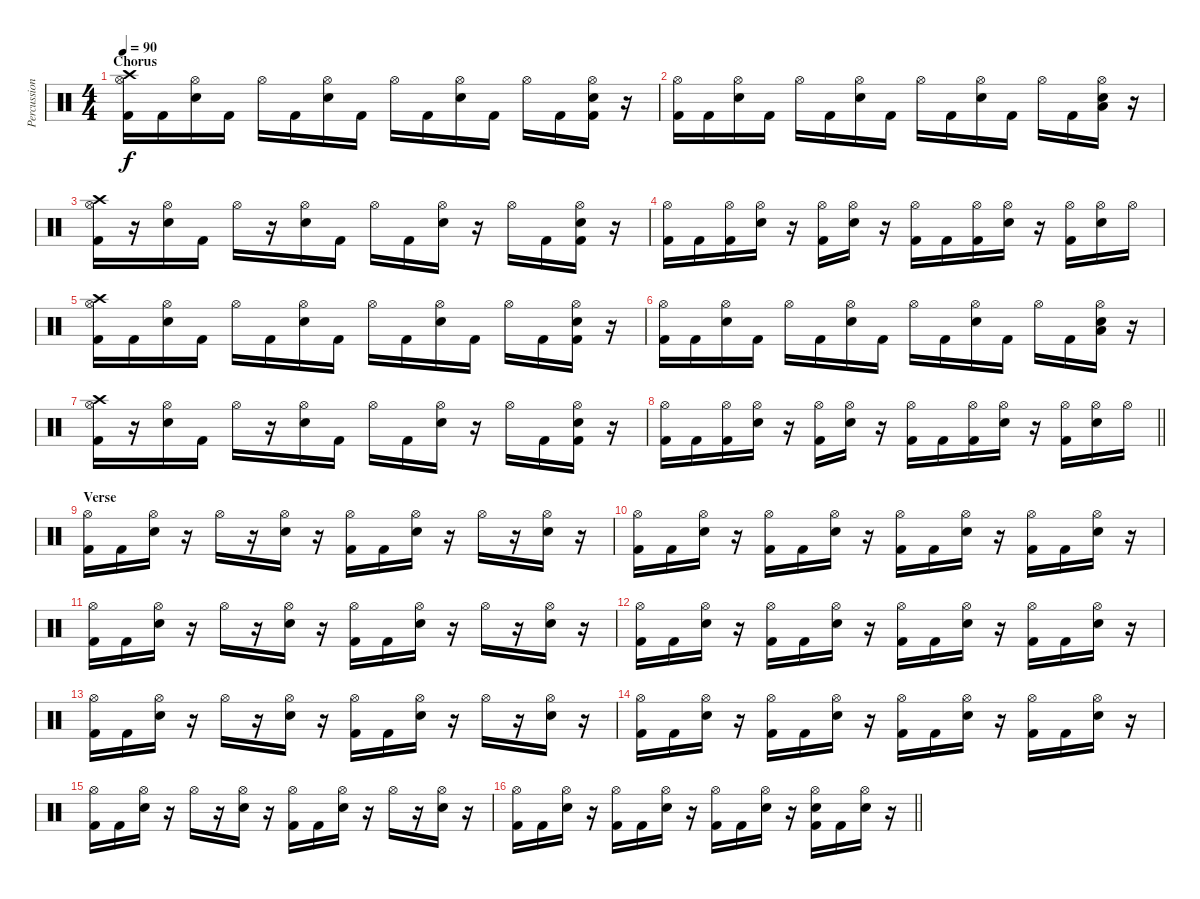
\track ("Percussion" "Percussion") {instrument percussion}
\staff {score}
\articulation defaults
\ts (4 4)
\section ("" "Chorus")
\tempo 90
\clef neutral
\ks c
("Crash high (hit)" "Hi-Hat (open)" "Kick (hit) 2").16{dy f} "Kick (hit) 2".16 ("Hi-Hat (open)" "Electric Snare (hit)").16 "Kick (hit) 2".16 "Hi-Hat (open)".16 "Kick (hit) 2".16 ("Hi-Hat (open)" "Electric Snare (hit)").16 "Kick (hit) 2".16 "Hi-Hat (open)".16 "Kick (hit) 2".16 ("Hi-Hat (open)" "Electric Snare (hit)").16 "Kick (hit) 2".16 "Hi-Hat (open)".16 "Kick (hit) 2".16 ("Hi-Hat (open)" "Electric Snare (hit)" "Kick (hit) 2").16 r.16 |
("Hi-Hat (open)" "Kick (hit) 2").16 "Kick (hit) 2".16 ("Hi-Hat (open)" "Electric Snare (hit)").16 "Kick (hit) 2".16 "Hi-Hat (open)".16 "Kick (hit) 2".16 ("Hi-Hat (open)" "Electric Snare (hit)").16 "Kick (hit) 2".16 "Hi-Hat (open)".16 "Kick (hit) 2".16 ("Hi-Hat (open)" "Electric Snare (hit)").16 "Kick (hit) 2".16 "Hi-Hat (open)".16 "Kick (hit) 2".16 ("Hi-Hat (open)" "Electric Snare (hit)" "Low Floor Tom (hit)").16 r.16 |
("Crash high (hit)" "Hi-Hat (open)" "Kick (hit) 2").16 r.16 ("Hi-Hat (open)" "Electric Snare (hit)").16 "Kick (hit) 2".16 "Hi-Hat (open)".16 r.16 ("Hi-Hat (open)" "Electric Snare (hit)").16 "Kick (hit) 2".16 "Hi-Hat (open)".16 "Kick (hit) 2".16 ("Hi-Hat (open)" "Electric Snare (hit)").16 r.16 "Hi-Hat (open)".16 "Kick (hit) 2".16 ("Hi-Hat (open)" "Electric Snare (hit)" "Kick (hit) 2").16 r.16 |
("Hi-Hat (open)" "Kick (hit) 2").16 "Kick (hit) 2".16 ("Hi-Hat (open)" "Kick (hit) 2").16 ("Hi-Hat (open)" "Electric Snare (hit)").16 r.16 ("Hi-Hat (open)" "Kick (hit) 2").16 ("Hi-Hat (open)" "Electric Snare (hit)").16 r.16 ("Hi-Hat (open)" "Kick (hit) 2").16 "Kick (hit) 2".16 ("Hi-Hat (open)" "Kick (hit) 2").16 ("Hi-Hat (open)" "Electric Snare (hit)").16 r.16 ("Hi-Hat (open)" "Kick (hit) 2").16 ("Hi-Hat (open)" "Electric Snare (hit)").16 "Hi-Hat (open)".16 |
("Crash high (hit)" "Hi-Hat (open)" "Kick (hit) 2").16 "Kick (hit) 2".16 ("Hi-Hat (open)" "Electric Snare (hit)").16 "Kick (hit) 2".16 "Hi-Hat (open)".16 "Kick (hit) 2".16 ("Hi-Hat (open)" "Electric Snare (hit)").16 "Kick (hit) 2".16 "Hi-Hat (open)".16 "Kick (hit) 2".16 ("Hi-Hat (open)" "Electric Snare (hit)").16 "Kick (hit) 2".16 "Hi-Hat (open)".16 "Kick (hit) 2".16 ("Hi-Hat (open)" "Electric Snare (hit)" "Kick (hit) 2").16 r.16 |
("Hi-Hat (open)" "Kick (hit) 2").16 "Kick (hit) 2".16 ("Hi-Hat (open)" "Electric Snare (hit)").16 "Kick (hit) 2".16 "Hi-Hat (open)".16 "Kick (hit) 2".16 ("Hi-Hat (open)" "Electric Snare (hit)").16 "Kick (hit) 2".16 "Hi-Hat (open)".16 "Kick (hit) 2".16 ("Hi-Hat (open)" "Electric Snare (hit)").16 "Kick (hit) 2".16 "Hi-Hat (open)".16 "Kick (hit) 2".16 ("Hi-Hat (open)" "Electric Snare (hit)" "Low Floor Tom (hit)").16 r.16 |
("Crash high (hit)" "Hi-Hat (open)" "Kick (hit) 2").16 r.16 ("Hi-Hat (open)" "Electric Snare (hit)").16 "Kick (hit) 2".16 "Hi-Hat (open)".16 r.16 ("Hi-Hat (open)" "Electric Snare (hit)").16 "Kick (hit) 2".16 "Hi-Hat (open)".16 "Kick (hit) 2".16 ("Hi-Hat (open)" "Electric Snare (hit)").16 r.16 "Hi-Hat (open)".16 "Kick (hit) 2".16 ("Hi-Hat (open)" "Electric Snare (hit)" "Kick (hit) 2").16 r.16 |
\barLineRight lightlight
("Hi-Hat (open)" "Kick (hit) 2").16 "Kick (hit) 2".16 ("Hi-Hat (open)" "Kick (hit) 2").16 ("Hi-Hat (open)" "Electric Snare (hit)").16 r.16 ("Hi-Hat (open)" "Kick (hit) 2").16 ("Hi-Hat (open)" "Electric Snare (hit)").16 r.16 ("Hi-Hat (open)" "Kick (hit) 2").16 "Kick (hit) 2".16 ("Hi-Hat (open)" "Kick (hit) 2").16 ("Hi-Hat (open)" "Electric Snare (hit)").16 r.16 ("Hi-Hat (open)" "Kick (hit) 2").16 ("Hi-Hat (open)" "Electric Snare (hit)").16 "Hi-Hat (open)".16 |
\section ("" "Verse")
("Hi-Hat (open)" "Kick (hit) 2").16 "Kick (hit) 2".16 ("Hi-Hat (open)" "Electric Snare (hit)").16 r.16 "Hi-Hat (open)".16 r.16 ("Hi-Hat (open)" "Electric Snare (hit)").16 r.16 ("Hi-Hat (open)" "Kick (hit) 2").16 "Kick (hit) 2".16 ("Hi-Hat (open)" "Electric Snare (hit)").16 r.16 "Hi-Hat (open)".16 r.16 ("Hi-Hat (open)" "Electric Snare (hit)").16 r.16 |
("Hi-Hat (open)" "Kick (hit) 2").16 "Kick (hit) 2".16 ("Hi-Hat (open)" "Electric Snare (hit)").16 r.16 ("Hi-Hat (open)" "Kick (hit) 2").16 "Kick (hit) 2".16 ("Hi-Hat (open)" "Electric Snare (hit)").16 r.16 ("Hi-Hat (open)" "Kick (hit) 2").16 "Kick (hit) 2".16 ("Hi-Hat (open)" "Electric Snare (hit)").16 r.16 ("Hi-Hat (open)" "Kick (hit) 2").16 "Kick (hit) 2".16 ("Hi-Hat (open)" "Electric Snare (hit)").16 r.16 |
("Hi-Hat (open)" "Kick (hit) 2").16 "Kick (hit) 2".16 ("Hi-Hat (open)" "Electric Snare (hit)").16 r.16 "Hi-Hat (open)".16 r.16 ("Hi-Hat (open)" "Electric Snare (hit)").16 r.16 ("Hi-Hat (open)" "Kick (hit) 2").16 "Kick (hit) 2".16 ("Hi-Hat (open)" "Electric Snare (hit)").16 r.16 "Hi-Hat (open)".16 r.16 ("Hi-Hat (open)" "Electric Snare (hit)").16 r.16 |
("Hi-Hat (open)" "Kick (hit) 2").16 "Kick (hit) 2".16 ("Hi-Hat (open)" "Electric Snare (hit)").16 r.16 ("Hi-Hat (open)" "Kick (hit) 2").16 "Kick (hit) 2".16 ("Hi-Hat (open)" "Electric Snare (hit)").16 r.16 ("Hi-Hat (open)" "Kick (hit) 2").16 "Kick (hit) 2".16 ("Hi-Hat (open)" "Electric Snare (hit)").16 r.16 ("Hi-Hat (open)" "Kick (hit) 2").16 "Kick (hit) 2".16 ("Hi-Hat (open)" "Electric Snare (hit)").16 r.16 |
("Hi-Hat (open)" "Kick (hit) 2").16 "Kick (hit) 2".16 ("Hi-Hat (open)" "Electric Snare (hit)").16 r.16 "Hi-Hat (open)".16 r.16 ("Hi-Hat (open)" "Electric Snare (hit)").16 r.16 ("Hi-Hat (open)" "Kick (hit) 2").16 "Kick (hit) 2".16 ("Hi-Hat (open)" "Electric Snare (hit)").16 r.16 "Hi-Hat (open)".16 r.16 ("Hi-Hat (open)" "Electric Snare (hit)").16 r.16 |
("Hi-Hat (open)" "Kick (hit) 2").16 "Kick (hit) 2".16 ("Hi-Hat (open)" "Electric Snare (hit)").16 r.16 ("Hi-Hat (open)" "Kick (hit) 2").16 "Kick (hit) 2".16 ("Hi-Hat (open)" "Electric Snare (hit)").16 r.16 ("Hi-Hat (open)" "Kick (hit) 2").16 "Kick (hit) 2".16 ("Hi-Hat (open)" "Electric Snare (hit)").16 r.16 ("Hi-Hat (open)" "Kick (hit) 2").16 "Kick (hit) 2".16 ("Hi-Hat (open)" "Electric Snare (hit)").16 r.16 |
("Hi-Hat (open)" "Kick (hit) 2").16 "Kick (hit) 2".16 ("Hi-Hat (open)" "Electric Snare (hit)").16 r.16 "Hi-Hat (open)".16 r.16 ("Hi-Hat (open)" "Electric Snare (hit)").16 r.16 ("Hi-Hat (open)" "Kick (hit) 2").16 "Kick (hit) 2".16 ("Hi-Hat (open)" "Electric Snare (hit)").16 r.16 "Hi-Hat (open)".16 r.16 ("Hi-Hat (open)" "Electric Snare (hit)").16 r.16 |
\barLineRight lightlight
("Hi-Hat (open)" "Kick (hit) 2").16 "Kick (hit) 2".16 ("Hi-Hat (open)" "Electric Snare (hit)").16 r.16 ("Hi-Hat (open)" "Kick (hit) 2").16 "Kick (hit) 2".16 ("Hi-Hat (open)" "Electric Snare (hit)").16 r.16 ("Hi-Hat (open)" "Kick (hit) 2").16 "Kick (hit) 2".16 ("Hi-Hat (open)" "Electric Snare (hit)").16 r.16 ("Hi-Hat (open)" "Electric Snare (hit)" "Kick (hit) 2").16 "Kick (hit) 2".16 ("Hi-Hat (open)" "Electric Snare (hit)").16 r.16
